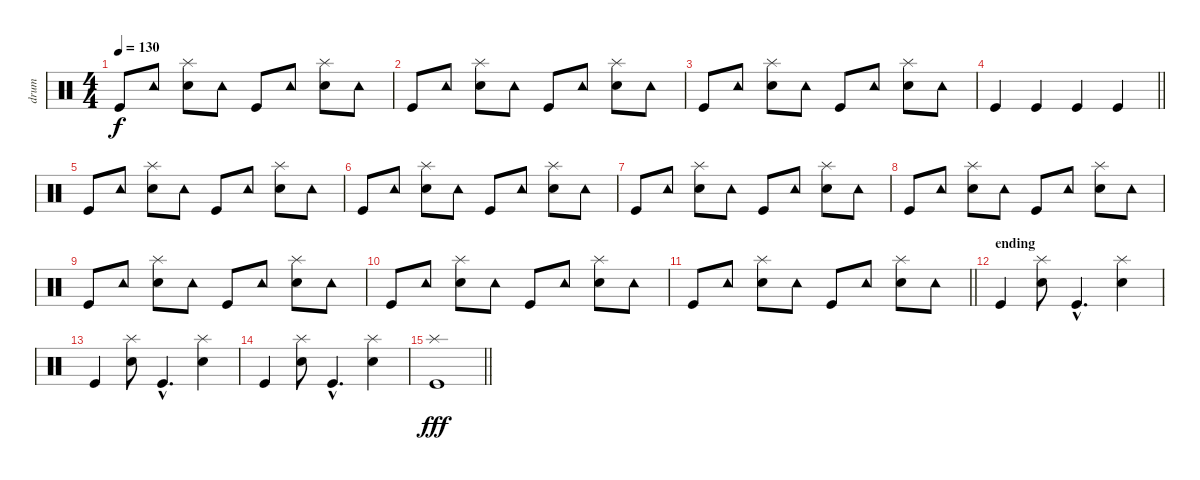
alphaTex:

\track ("drum" "drum") {instrument percussion}
\staff {score}
\articulation defaults
\ts (4 4)
\tempo 130
\clef neutral
\ks c "Kick (hit)".8{dy f} "Tambourine (hit)".8
("Snare (hit) 2" "Splash (hit)").8 "Tambourine (hit)".8 "Kick (hit)".8 "Tambourine (hit)".8 ("Snare (hit) 2" "Splash (hit)").8 "Tambourine (hit)".8 |
"Kick (hit)".8 "Tambourine (hit)".8 ("Snare (hit) 2" "Splash (hit)").8 "Tambourine (hit)".8 "Kick (hit)".8 "Tambourine (hit)".8 ("Snare (hit) 2" "Splash (hit)").8 "Tambourine (hit)".8 |
"Kick (hit)".8 "Tambourine (hit)".8 ("Snare (hit) 2" "Splash (hit)").8 "Tambourine (hit)".8 "Kick (hit)".8 "Tambourine (hit)".8 ("Snare (hit) 2" "Splash (hit)").8 "Tambourine (hit)".8 |
\barLineRight lightlight "Kick (hit)".4 "Kick (hit)".4 "Kick (hit)".4 "Kick (hit)".4
|
"Kick (hit)".8 "Tambourine (hit)".8 ("Snare (hit) 2" "Splash (hit)").8 "Tambourine (hit)".8 "Kick (hit)".8 "Tambourine (hit)".8 ("Snare (hit) 2" "Splash (hit)").8 "Tambourine (hit)".8 |
"Kick (hit)".8 "Tambourine (hit)".8 ("Snare (hit) 2" "Splash (hit)").8 "Tambourine (hit)".8 "Kick (hit)".8 "Tambourine (hit)".8 ("Snare (hit) 2" "Splash (hit)").8 "Tambourine (hit)".8 |
"Kick (hit)".8 "Tambourine (hit)".8 ("Snare (hit) 2" "Splash (hit)").8 "Tambourine (hit)".8 "Kick (hit)".8 "Tambourine (hit)".8 ("Snare (hit) 2" "Splash (hit)").8 "Tambourine (hit)".8 |
"Kick (hit)".8 "Tambourine (hit)".8 ("Snare (hit) 2" "Splash (hit)").8 "Tambourine (hit)".8 "Kick (hit)".8 "Tambourine (hit)".8 ("Snare (hit) 2" "Splash (hit)").8 "Tambourine (hit)".8 |
"Kick (hit)".8 "Tambourine (hit)".8 ("Snare (hit) 2" "Splash (hit)").8 "Tambourine (hit)".8 "Kick (hit)".8 "Tambourine (hit)".8 ("Snare (hit) 2" "Splash (hit)").8 "Tambourine (hit)".8 |
"Kick (hit)".8 "Tambourine (hit)".8 ("Snare (hit) 2" "Splash (hit)").8 "Tambourine (hit)".8 "Kick (hit)".8 "Tambourine (hit)".8 ("Snare (hit) 2" "Splash (hit)").8 "Tambourine (hit)".8 |
\barLineRight lightlight "Kick (hit)".8 "Tambourine (hit)".8
("Snare (hit) 2" "Splash (hit)").8 "Tambourine (hit)".8 "Kick (hit)".8 "Tambourine (hit)".8 ("Snare (hit) 2" "Splash (hit)").8 "Tambourine (hit)".8 |
\section ("" "ending")
"Kick (hit)".4 ("Snare (hit) 2" "Splash (hit)").8 "Kick (hit)"{hac}.4{d} ("Snare (hit) 2" "Splash (hit)").4 |
"Kick (hit)".4 ("Snare (hit) 2" "Splash (hit)").8 "Kick (hit)"{hac}.4{d} ("Snare (hit) 2" "Splash (hit)").4 |
"Kick (hit)".4 ("Snare (hit) 2" "Splash (hit)").8 "Kick (hit)"{hac}.4{d} ("Snare (hit) 2" "Splash (hit)").4 |
\barLineRight lightlight
("Kick (hit)" "Splash (hit)").1{dy fff}
